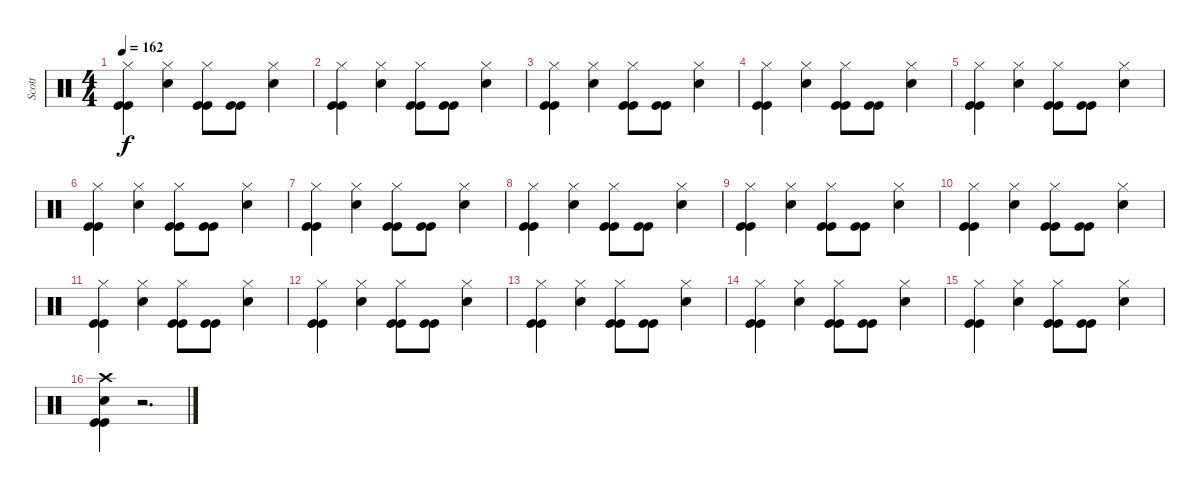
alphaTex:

\track ("Scott" "Scott") {instrument percussion}
\staff {score}
\articulation defaults
\ts (4 4)
\tempo 162
\clef neutral
\ks c
("Hi-Hat (closed)" "Kick (hit)" "Kick (hit)").4{dy f} ("Hi-Hat (closed)" "Snare (hit) 2").4 ("Hi-Hat (closed)" "Kick (hit)" "Kick (hit)").8 ("Kick (hit)" "Kick (hit)").8 ("Hi-Hat (closed)" "Snare (hit) 2").4 |
("Hi-Hat (closed)" "Kick (hit)" "Kick (hit)").4 ("Hi-Hat (closed)" "Snare (hit) 2").4 ("Hi-Hat (closed)" "Kick (hit)" "Kick (hit)").8 ("Kick (hit)" "Kick (hit)").8 ("Hi-Hat (closed)" "Snare (hit) 2").4 |
("Hi-Hat (closed)" "Kick (hit)" "Kick (hit)").4 ("Hi-Hat (closed)" "Snare (hit) 2").4 ("Hi-Hat (closed)" "Kick (hit)" "Kick (hit)").8 ("Kick (hit)" "Kick (hit)").8 ("Hi-Hat (closed)" "Snare (hit) 2").4 |
("Hi-Hat (closed)" "Kick (hit)" "Kick (hit)").4 ("Hi-Hat (closed)" "Snare (hit) 2").4 ("Hi-Hat (closed)" "Kick (hit)" "Kick (hit)").8 ("Kick (hit)" "Kick (hit)").8 ("Hi-Hat (closed)" "Snare (hit) 2").4 |
("Hi-Hat (closed)" "Kick (hit)" "Kick (hit)").4 ("Hi-Hat (closed)" "Snare (hit) 2").4 ("Hi-Hat (closed)" "Kick (hit)" "Kick (hit)").8 ("Kick (hit)" "Kick (hit)").8 ("Hi-Hat (closed)" "Snare (hit) 2").4 |
("Hi-Hat (closed)" "Kick (hit)" "Kick (hit)").4 ("Hi-Hat (closed)" "Snare (hit) 2").4 ("Hi-Hat (closed)" "Kick (hit)" "Kick (hit)").8 ("Kick (hit)" "Kick (hit)").8 ("Hi-Hat (closed)" "Snare (hit) 2").4 |
("Hi-Hat (closed)" "Kick (hit)" "Kick (hit)").4 ("Hi-Hat (closed)" "Snare (hit) 2").4 ("Hi-Hat (closed)" "Kick (hit)" "Kick (hit)").8 ("Kick (hit)" "Kick (hit)").8 ("Hi-Hat (closed)" "Snare (hit) 2").4 |
("Hi-Hat (closed)" "Kick (hit)" "Kick (hit)").4 ("Hi-Hat (closed)" "Snare (hit) 2").4 ("Hi-Hat (closed)" "Kick (hit)" "Kick (hit)").8 ("Kick (hit)" "Kick (hit)").8 ("Hi-Hat (closed)" "Snare (hit) 2").4 |
("Hi-Hat (closed)" "Kick (hit)" "Kick (hit)").4 ("Hi-Hat (closed)" "Snare (hit) 2").4 ("Hi-Hat (closed)" "Kick (hit)" "Kick (hit)").8 ("Kick (hit)" "Kick (hit)").8 ("Hi-Hat (closed)" "Snare (hit) 2").4 |
("Hi-Hat (closed)" "Kick (hit)" "Kick (hit)").4 ("Hi-Hat (closed)" "Snare (hit) 2").4 ("Hi-Hat (closed)" "Kick (hit)" "Kick (hit)").8 ("Kick (hit)" "Kick (hit)").8 ("Hi-Hat (closed)" "Snare (hit) 2").4 |
("Hi-Hat (closed)" "Kick (hit)" "Kick (hit)").4 ("Hi-Hat (closed)" "Snare (hit) 2").4 ("Hi-Hat (closed)" "Kick (hit)" "Kick (hit)").8 ("Kick (hit)" "Kick (hit)").8 ("Hi-Hat (closed)" "Snare (hit) 2").4 |
("Hi-Hat (closed)" "Kick (hit)" "Kick (hit)").4 ("Hi-Hat (closed)" "Snare (hit) 2").4 ("Hi-Hat (closed)" "Kick (hit)" "Kick (hit)").8 ("Kick (hit)" "Kick (hit)").8 ("Hi-Hat (closed)" "Snare (hit) 2").4 |
("Hi-Hat (closed)" "Kick (hit)" "Kick (hit)").4 ("Hi-Hat (closed)" "Snare (hit) 2").4 ("Hi-Hat (closed)" "Kick (hit)" "Kick (hit)").8 ("Kick (hit)" "Kick (hit)").8 ("Hi-Hat (closed)" "Snare (hit) 2").4 |
("Hi-Hat (closed)" "Kick (hit)" "Kick (hit)").4 ("Hi-Hat (closed)" "Snare (hit) 2").4 ("Hi-Hat (closed)" "Kick (hit)" "Kick (hit)").8 ("Kick (hit)" "Kick (hit)").8 ("Hi-Hat (closed)" "Snare (hit) 2").4 |
("Hi-Hat (closed)" "Kick (hit)" "Kick (hit)").4 ("Hi-Hat (closed)" "Snare (hit) 2").4 ("Hi-Hat (closed)" "Kick (hit)" "Kick (hit)").8 ("Kick (hit)" "Kick (hit)").8 ("Hi-Hat (closed)" "Snare (hit) 2").4 |
("Crash high (hit)" "Snare (hit) 2" "Kick (hit)" "Kick (hit)").4 r.2{d}
